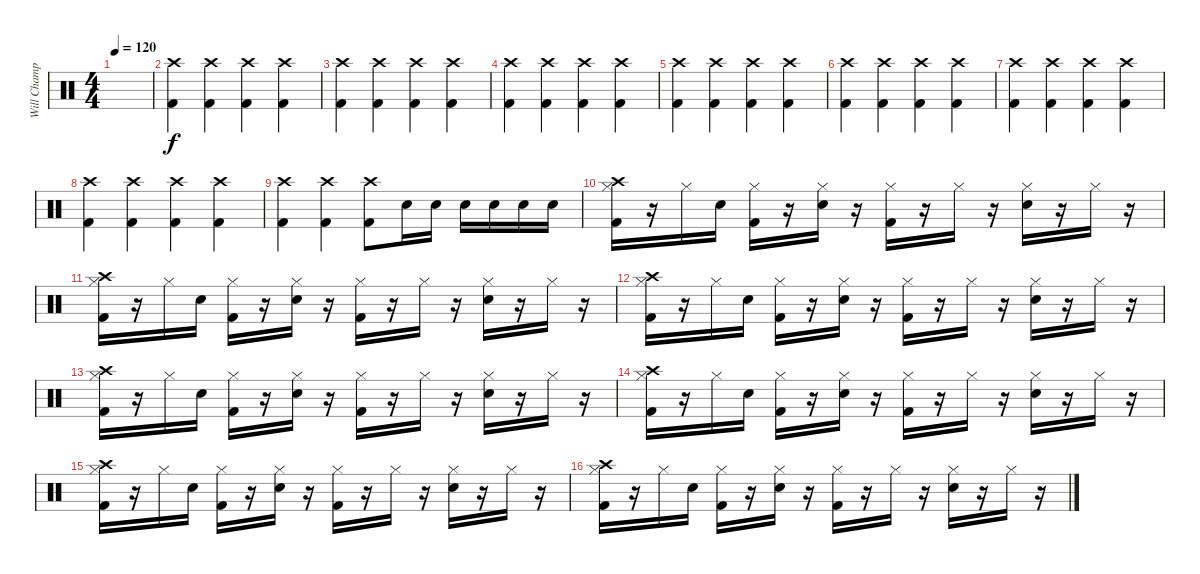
\track ("Will Champion" "Will Champ") {instrument percussion}
\staff {score}
\articulation defaults
\ts (4 4)
\tempo 120
\clef neutral
\ks c
|
("Crash high (hit)" "Kick (hit) 2").4 ("Crash high (hit)" "Kick (hit) 2").4 ("Crash high (hit)" "Kick (hit) 2").4 ("Crash high (hit)" "Kick (hit) 2").4 |
("Crash high (hit)" "Kick (hit) 2").4 ("Crash high (hit)" "Kick (hit) 2").4 ("Crash high (hit)" "Kick (hit) 2").4 ("Crash high (hit)" "Kick (hit) 2").4 |
("Crash high (hit)" "Kick (hit) 2").4 ("Crash high (hit)" "Kick (hit) 2").4 ("Crash high (hit)" "Kick (hit) 2").4 ("Crash high (hit)" "Kick (hit) 2").4 |
("Crash high (hit)" "Kick (hit) 2").4 ("Crash high (hit)" "Kick (hit) 2").4 ("Crash high (hit)" "Kick (hit) 2").4 ("Crash high (hit)" "Kick (hit) 2").4 |
("Crash high (hit)" "Kick (hit) 2").4 ("Crash high (hit)" "Kick (hit) 2").4 ("Crash high (hit)" "Kick (hit) 2").4 ("Crash high (hit)" "Kick (hit) 2").4 |
("Crash high (hit)" "Kick (hit) 2").4 ("Crash high (hit)" "Kick (hit) 2").4 ("Crash high (hit)" "Kick (hit) 2").4 ("Crash high (hit)" "Kick (hit) 2").4 |
("Crash high (hit)" "Kick (hit) 2").4 ("Crash high (hit)" "Kick (hit) 2").4 ("Crash high (hit)" "Kick (hit) 2").4 ("Crash high (hit)" "Kick (hit) 2").4 |
("Crash high (hit)" "Kick (hit) 2").4 ("Crash high (hit)" "Kick (hit) 2").4 ("Crash high (hit)" "Kick (hit) 2").8 "Snare (hit) 2".16 "Snare (hit) 2".16 "Snare (hit) 2".16 "Snare (hit) 2".16 "Snare (hit) 2".16 "Snare (hit) 2".16 |
("Crash high (hit)" "Hi-Hat (closed)" "Kick (hit) 2").16 r.16 "Hi-Hat (closed)".16 "Snare (hit) 2".16 ("Hi-Hat (closed)" "Kick (hit) 2").16 r.16 ("Hi-Hat (closed)" "Snare (hit) 2").16 r.16 ("Hi-Hat (closed)" "Kick (hit) 2").16 r.16 "Hi-Hat (closed)".16 r.16 ("Hi-Hat (closed)" "Snare (hit) 2").16 r.16 "Hi-Hat (closed)".16 r.16 |
("Crash high (hit)" "Hi-Hat (closed)" "Kick (hit) 2").16 r.16 "Hi-Hat (closed)".16 "Snare (hit) 2".16 ("Hi-Hat (closed)" "Kick (hit) 2").16 r.16 ("Hi-Hat (closed)" "Snare (hit) 2").16 r.16 ("Hi-Hat (closed)" "Kick (hit) 2").16 r.16 "Hi-Hat (closed)".16 r.16 ("Hi-Hat (closed)" "Snare (hit) 2").16 r.16 "Hi-Hat (closed)".16 r.16 |
("Crash high (hit)" "Hi-Hat (closed)" "Kick (hit) 2").16 r.16 "Hi-Hat (closed)".16 "Snare (hit) 2".16 ("Hi-Hat (closed)" "Kick (hit) 2").16 r.16 ("Hi-Hat (closed)" "Snare (hit) 2").16 r.16 ("Hi-Hat (closed)" "Kick (hit) 2").16 r.16 "Hi-Hat (closed)".16 r.16 ("Hi-Hat (closed)" "Snare (hit) 2").16 r.16 "Hi-Hat (closed)".16 r.16 |
("Crash high (hit)" "Hi-Hat (closed)" "Kick (hit) 2").16 r.16 "Hi-Hat (closed)".16 "Snare (hit) 2".16 ("Hi-Hat (closed)" "Kick (hit) 2").16 r.16 ("Hi-Hat (closed)" "Snare (hit) 2").16 r.16 ("Hi-Hat (closed)" "Kick (hit) 2").16 r.16 "Hi-Hat (closed)".16 r.16 ("Hi-Hat (closed)" "Snare (hit) 2").16 r.16 "Hi-Hat (closed)".16 r.16 |
("Crash high (hit)" "Hi-Hat (closed)" "Kick (hit) 2").16 r.16 "Hi-Hat (closed)".16 "Snare (hit) 2".16 ("Hi-Hat (closed)" "Kick (hit) 2").16 r.16 ("Hi-Hat (closed)" "Snare (hit) 2").16 r.16 ("Hi-Hat (closed)" "Kick (hit) 2").16 r.16 "Hi-Hat (closed)".16 r.16 ("Hi-Hat (closed)" "Snare (hit) 2").16 r.16 "Hi-Hat (closed)".16 r.16 |
("Crash high (hit)" "Hi-Hat (closed)" "Kick (hit) 2").16 r.16 "Hi-Hat (closed)".16 "Snare (hit) 2".16 ("Hi-Hat (closed)" "Kick (hit) 2").16 r.16 ("Hi-Hat (closed)" "Snare (hit) 2").16 r.16 ("Hi-Hat (closed)" "Kick (hit) 2").16 r.16 "Hi-Hat (closed)".16 r.16 ("Hi-Hat (closed)" "Snare (hit) 2").16 r.16 "Hi-Hat (closed)".16 r.16 |
("Crash high (hit)" "Hi-Hat (closed)" "Kick (hit) 2").16 r.16 "Hi-Hat (closed)".16 "Snare (hit) 2".16 ("Hi-Hat (closed)" "Kick (hit) 2").16 r.16 ("Hi-Hat (closed)" "Snare (hit) 2").16 r.16 ("Hi-Hat (closed)" "Kick (hit) 2").16 r.16 "Hi-Hat (closed)".16 r.16 ("Hi-Hat (closed)" "Snare (hit) 2").16 r.16 "Hi-Hat (closed)".16 r.16
